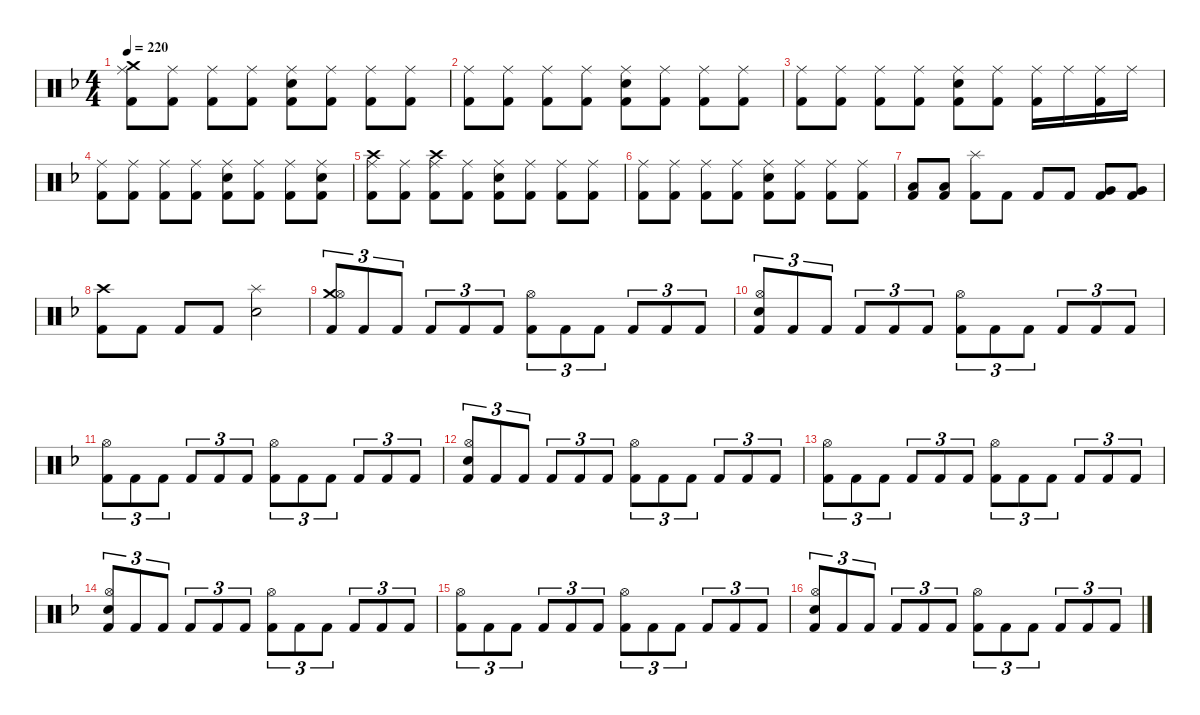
\hideDynamics
\bracketExtendMode nobrackets
\singleTrackTrackNamePolicy hidden
\multiTrackTrackNamePolicy hidden
\firstSystemTrackNameMode fullname
\firstSystemTrackNameOrientation horizontal
\otherSystemsTrackNameOrientation horizontal
\track ("Drumkit" "Drums") {instrument percussion}
\staff {score}
\articulation defaults
\ts (4 4)
\tempo 220
\clef neutral
\ks dminor
("Crash medium (hit)"{acc forcenatural} "Ride (middle)"{acc forcenatural} "Kick (hit) 2"{acc forcenatural}).8{dy f beam Down} ("Ride (middle)"{acc forcenatural} "Kick (hit) 2"{acc forcenatural}).8{dy mp beam Down} ("Ride (middle)"{acc forcenatural} "Kick (hit) 2"{acc forcenatural}).8{dy f beam Down} ("Ride (middle)"{acc forcenatural} "Kick (hit) 2"{acc forcenatural}).8{dy mp beam Down} ("Ride (middle)"{acc forcenatural} "Snare (hit) 2"{acc forcenatural} "Kick (hit) 2"{acc forcenatural}).8{dy f beam Down} ("Ride (middle)"{acc forcenatural} "Kick (hit) 2"{acc forcenatural}).8{dy mp beam Down} ("Ride (middle)"{acc forcenatural} "Kick (hit) 2"{acc forcenatural}).8{dy f beam Down} ("Ride (middle)"{acc forcenatural} "Kick (hit) 2"{acc forcenatural}).8{dy mp beam Down} |
("Ride (middle)"{acc forcenatural} "Kick (hit) 2"{acc forcenatural}).8{dy f beam Down} ("Ride (middle)"{acc forcenatural} "Kick (hit) 2"{acc forcenatural}).8{dy mp beam Down} ("Ride (middle)"{acc forcenatural} "Kick (hit) 2"{acc forcenatural}).8{dy f beam Down} ("Ride (middle)"{acc forcenatural} "Kick (hit) 2"{acc forcenatural}).8{dy mp beam Down} ("Ride (middle)"{acc forcenatural} "Snare (hit) 2"{acc forcenatural} "Kick (hit) 2"{acc forcenatural}).8{dy f beam Down} ("Ride (middle)"{acc forcenatural} "Kick (hit) 2"{acc forcenatural}).8{dy mp beam Down} ("Ride (middle)"{acc forcenatural} "Kick (hit) 2"{acc forcenatural}).8{dy f beam Down} ("Ride (middle)"{acc forcenatural} "Kick (hit) 2"{acc forcenatural}).8{dy mp beam Down} |
("Ride (middle)"{acc forcenatural} "Kick (hit) 2"{acc forcenatural}).8{dy f beam Down} ("Ride (middle)"{acc forcenatural} "Kick (hit) 2"{acc forcenatural}).8{dy mp beam Down} ("Ride (middle)"{acc forcenatural} "Kick (hit) 2"{acc forcenatural}).8{dy f beam Down} ("Ride (middle)"{acc forcenatural} "Kick (hit) 2"{acc forcenatural}).8{dy mp beam Down} ("Ride (middle)"{acc forcenatural} "Snare (hit) 2"{acc forcenatural} "Kick (hit) 2"{acc forcenatural}).8{dy f beam Down} ("Ride (middle)"{acc forcenatural} "Kick (hit) 2"{acc forcenatural}).8{dy mp beam Down} ("Ride (middle)"{acc forcenatural} "Kick (hit) 2"{acc forcenatural}).16{dy f beam Down} "Ride (middle)"{acc forcenatural}.16{dy mf beam Down} ("Ride (middle)"{acc forcenatural} "Kick (hit) 2"{acc forcenatural}).16{dy mp beam Down} "Ride (middle)"{acc forcenatural}.16{dy mf beam Down} |
("Ride (middle)"{acc forcenatural} "Kick (hit) 2"{acc forcenatural}).8{dy f beam Down} ("Ride (middle)"{acc forcenatural} "Kick (hit) 2"{acc forcenatural}).8{dy mp beam Down} ("Ride (middle)"{acc forcenatural} "Kick (hit) 2"{acc forcenatural}).8{dy f beam Down} ("Ride (middle)"{acc forcenatural} "Kick (hit) 2"{acc forcenatural}).8{dy mp beam Down} ("Ride (middle)"{acc forcenatural} "Snare (hit) 2"{acc forcenatural} "Kick (hit) 2"{acc forcenatural}).8{dy f beam Down} ("Ride (middle)"{acc forcenatural} "Kick (hit) 2"{acc forcenatural}).8{dy mp beam Down} ("Ride (middle)"{acc forcenatural} "Kick (hit) 2"{acc forcenatural}).8{dy f beam Down} ("Ride (middle)"{acc forcenatural} "Snare (hit) 2"{acc forcenatural} "Kick (hit) 2"{acc forcenatural}).8{dy mp beam Down} |
("Crash high (hit)"{acc forcenatural} "Ride (middle)"{acc forcenatural} "Kick (hit) 2"{acc forcenatural}).8{dy f beam Down} ("Ride (middle)"{acc forcenatural} "Kick (hit) 2"{acc forcenatural}).8{dy mp beam Down} ("Crash high (hit)"{acc forcenatural} "Ride (middle)"{acc forcenatural} "Kick (hit) 2"{acc forcenatural}).8{dy f beam Down} ("Ride (middle)"{acc forcenatural} "Kick (hit) 2"{acc forcenatural}).8{dy mp beam Down} ("Ride (middle)"{acc forcenatural} "Snare (hit) 2"{acc forcenatural} "Kick (hit) 2"{acc forcenatural}).8{dy f beam Down} ("Ride (middle)"{acc forcenatural} "Kick (hit) 2"{acc forcenatural}).8{dy mp beam Down} ("Ride (middle)"{acc forcenatural} "Kick (hit) 2"{acc forcenatural}).8{dy f beam Down} ("Ride (middle)"{acc forcenatural} "Kick (hit) 2"{acc forcenatural}).8{dy mp beam Down} |
("Ride (middle)"{acc forcenatural} "Kick (hit) 2"{acc forcenatural}).8{dy f beam Down} ("Ride (middle)"{acc forcenatural} "Kick (hit) 2"{acc forcenatural}).8{dy mp beam Down} ("Ride (middle)"{acc forcenatural} "Kick (hit) 2"{acc forcenatural}).8{dy f beam Down} ("Ride (middle)"{acc forcenatural} "Kick (hit) 2"{acc forcenatural}).8{dy mp beam Down} ("Ride (middle)"{acc forcenatural} "Snare (hit) 2"{acc forcenatural} "Kick (hit) 2"{acc forcenatural}).8{dy f beam Down} ("Ride (middle)"{acc forcenatural} "Kick (hit) 2"{acc forcenatural}).8{dy mp beam Down} ("Ride (middle)"{acc forcenatural} "Kick (hit) 2"{acc forcenatural}).8{dy f beam Down} ("Ride (middle)"{acc forcenatural} "Kick (hit) 2"{acc forcenatural}).8{dy mp beam Down} |
("Low Tom (hit)"{acc forcenatural} "Kick (hit) 2"{acc forcenatural}).8{dy f beam Up} ("Low Tom (hit)"{acc forcenatural} "Kick (hit) 2"{acc forcenatural}).8{beam Up} ("Splash (hit)"{acc forcenatural} "Kick (hit) 2"{acc forcenatural}).8{beam Down} "Kick (hit) 2"{acc forcenatural}.8{beam Down} "Kick (hit) 2"{acc forcenatural}.8{beam Up} "Kick (hit) 2"{acc forcenatural}.8{beam Up} ("Very Low Tom (hit)"{acc forcenatural} "Kick (hit) 2"{acc forcenatural}).8{beam Up} ("Very Low Tom (hit)"{acc forcenatural} "Kick (hit) 2"{acc forcenatural}).8{beam Up} |
("Crash high (hit)"{acc forcenatural} "Kick (hit) 2"{acc forcenatural}).8{beam Down} "Kick (hit) 2"{acc forcenatural}.8{beam Down} "Kick (hit) 2"{acc forcenatural}.8{beam Up} "Kick (hit) 2"{acc forcenatural}.8{beam Up} ("Splash (hit)"{acc forcenatural} "Snare (hit) 2"{acc forcenatural}).2{dy mf beam Down} |
("Crash medium (hit)"{acc forcenatural} "Hi-Hat (open)"{acc forcenatural} "Kick (hit) 2"{acc forcenatural}).8{tu (3 2) dy f beam Up} "Kick (hit) 2"{acc forcenatural}.8{tu (3 2) beam Up} "Kick (hit) 2"{acc forcenatural}.8{tu (3 2) beam Up} "Kick (hit) 2"{acc forcenatural}.8{tu (3 2) beam Up} "Kick (hit) 2"{acc forcenatural}.8{tu (3 2) beam Up} "Kick (hit) 2"{acc forcenatural}.8{tu (3 2) beam Up} ("Hi-Hat (open)"{acc forcenatural} "Kick (hit) 2"{acc forcenatural}).8{tu (3 2) beam Down} "Kick (hit) 2"{acc forcenatural}.8{tu (3 2) beam Down} "Kick (hit) 2"{acc forcenatural}.8{tu (3 2) beam Down} "Kick (hit) 2"{acc forcenatural}.8{tu (3 2) beam Up} "Kick (hit) 2"{acc forcenatural}.8{tu (3 2) beam Up} "Kick (hit) 2"{acc forcenatural}.8{tu (3 2) beam Up} |
("Hi-Hat (open)"{acc forcenatural} "Snare (hit) 2"{acc forcenatural} "Kick (hit) 2"{acc forcenatural}).8{tu (3 2) beam Up} "Kick (hit) 2"{acc forcenatural}.8{tu (3 2) beam Up} "Kick (hit) 2"{acc forcenatural}.8{tu (3 2) beam Up} "Kick (hit) 2"{acc forcenatural}.8{tu (3 2) beam Up} "Kick (hit) 2"{acc forcenatural}.8{tu (3 2) beam Up} "Kick (hit) 2"{acc forcenatural}.8{tu (3 2) beam Up} ("Hi-Hat (open)"{acc forcenatural} "Kick (hit) 2"{acc forcenatural}).8{tu (3 2) beam Down} "Kick (hit) 2"{acc forcenatural}.8{tu (3 2) beam Down} "Kick (hit) 2"{acc forcenatural}.8{tu (3 2) beam Down} "Kick (hit) 2"{acc forcenatural}.8{tu (3 2) beam Up} "Kick (hit) 2"{acc forcenatural}.8{tu (3 2) beam Up} "Kick (hit) 2"{acc forcenatural}.8{tu (3 2) beam Up} |
("Hi-Hat (open)"{acc forcenatural} "Kick (hit) 2"{acc forcenatural}).8{tu (3 2) beam Down} "Kick (hit) 2"{acc forcenatural}.8{tu (3 2) beam Down} "Kick (hit) 2"{acc forcenatural}.8{tu (3 2) beam Down} "Kick (hit) 2"{acc forcenatural}.8{tu (3 2) beam Up} "Kick (hit) 2"{acc forcenatural}.8{tu (3 2) beam Up} "Kick (hit) 2"{acc forcenatural}.8{tu (3 2) beam Up} ("Hi-Hat (open)"{acc forcenatural} "Kick (hit) 2"{acc forcenatural}).8{tu (3 2) beam Down} "Kick (hit) 2"{acc forcenatural}.8{tu (3 2) beam Down} "Kick (hit) 2"{acc forcenatural}.8{tu (3 2) beam Down} "Kick (hit) 2"{acc forcenatural}.8{tu (3 2) beam Up} "Kick (hit) 2"{acc forcenatural}.8{tu (3 2) beam Up} "Kick (hit) 2"{acc forcenatural}.8{tu (3 2) beam Up} |
("Hi-Hat (open)"{acc forcenatural} "Snare (hit) 2"{acc forcenatural} "Kick (hit) 2"{acc forcenatural}).8{tu (3 2) beam Up} "Kick (hit) 2"{acc forcenatural}.8{tu (3 2) beam Up} "Kick (hit) 2"{acc forcenatural}.8{tu (3 2) beam Up} "Kick (hit) 2"{acc forcenatural}.8{tu (3 2) beam Up} "Kick (hit) 2"{acc forcenatural}.8{tu (3 2) beam Up} "Kick (hit) 2"{acc forcenatural}.8{tu (3 2) beam Up} ("Hi-Hat (open)"{acc forcenatural} "Kick (hit) 2"{acc forcenatural}).8{tu (3 2) beam Down} "Kick (hit) 2"{acc forcenatural}.8{tu (3 2) beam Down} "Kick (hit) 2"{acc forcenatural}.8{tu (3 2) beam Down} "Kick (hit) 2"{acc forcenatural}.8{tu (3 2) beam Up} "Kick (hit) 2"{acc forcenatural}.8{tu (3 2) beam Up} "Kick (hit) 2"{acc forcenatural}.8{tu (3 2) beam Up} |
("Hi-Hat (open)"{acc forcenatural} "Kick (hit) 2"{acc forcenatural}).8{tu (3 2) beam Down} "Kick (hit) 2"{acc forcenatural}.8{tu (3 2) beam Down} "Kick (hit) 2"{acc forcenatural}.8{tu (3 2) beam Down} "Kick (hit) 2"{acc forcenatural}.8{tu (3 2) beam Up} "Kick (hit) 2"{acc forcenatural}.8{tu (3 2) beam Up} "Kick (hit) 2"{acc forcenatural}.8{tu (3 2) beam Up} ("Hi-Hat (open)"{acc forcenatural} "Kick (hit) 2"{acc forcenatural}).8{tu (3 2) beam Down} "Kick (hit) 2"{acc forcenatural}.8{tu (3 2) beam Down} "Kick (hit) 2"{acc forcenatural}.8{tu (3 2) beam Down} "Kick (hit) 2"{acc forcenatural}.8{tu (3 2) beam Up} "Kick (hit) 2"{acc forcenatural}.8{tu (3 2) beam Up} "Kick (hit) 2"{acc forcenatural}.8{tu (3 2) beam Up} |
("Hi-Hat (open)"{acc forcenatural} "Snare (hit) 2"{acc forcenatural} "Kick (hit) 2"{acc forcenatural}).8{tu (3 2) beam Up} "Kick (hit) 2"{acc forcenatural}.8{tu (3 2) beam Up} "Kick (hit) 2"{acc forcenatural}.8{tu (3 2) beam Up} "Kick (hit) 2"{acc forcenatural}.8{tu (3 2) beam Up} "Kick (hit) 2"{acc forcenatural}.8{tu (3 2) beam Up} "Kick (hit) 2"{acc forcenatural}.8{tu (3 2) beam Up} ("Hi-Hat (open)"{acc forcenatural} "Kick (hit) 2"{acc forcenatural}).8{tu (3 2) beam Down} "Kick (hit) 2"{acc forcenatural}.8{tu (3 2) beam Down} "Kick (hit) 2"{acc forcenatural}.8{tu (3 2) beam Down} "Kick (hit) 2"{acc forcenatural}.8{tu (3 2) beam Up} "Kick (hit) 2"{acc forcenatural}.8{tu (3 2) beam Up} "Kick (hit) 2"{acc forcenatural}.8{tu (3 2) beam Up} |
("Hi-Hat (open)"{acc forcenatural} "Kick (hit) 2"{acc forcenatural}).8{tu (3 2) beam Down} "Kick (hit) 2"{acc forcenatural}.8{tu (3 2) beam Down} "Kick (hit) 2"{acc forcenatural}.8{tu (3 2) beam Down} "Kick (hit) 2"{acc forcenatural}.8{tu (3 2) beam Up} "Kick (hit) 2"{acc forcenatural}.8{tu (3 2) beam Up} "Kick (hit) 2"{acc forcenatural}.8{tu (3 2) beam Up} ("Hi-Hat (open)"{acc forcenatural} "Kick (hit) 2"{acc forcenatural}).8{tu (3 2) beam Down} "Kick (hit) 2"{acc forcenatural}.8{tu (3 2) beam Down} "Kick (hit) 2"{acc forcenatural}.8{tu (3 2) beam Down} "Kick (hit) 2"{acc forcenatural}.8{tu (3 2) beam Up} "Kick (hit) 2"{acc forcenatural}.8{tu (3 2) beam Up} "Kick (hit) 2"{acc forcenatural}.8{tu (3 2) beam Up} |
("Hi-Hat (open)"{acc forcenatural} "Snare (hit) 2"{acc forcenatural} "Kick (hit) 2"{acc forcenatural}).8{tu (3 2) beam Up} "Kick (hit) 2"{acc forcenatural}.8{tu (3 2) beam Up} "Kick (hit) 2"{acc forcenatural}.8{tu (3 2) beam Up} "Kick (hit) 2"{acc forcenatural}.8{tu (3 2) beam Up} "Kick (hit) 2"{acc forcenatural}.8{tu (3 2) beam Up} "Kick (hit) 2"{acc forcenatural}.8{tu (3 2) beam Up} ("Hi-Hat (open)"{acc forcenatural} "Kick (hit) 2"{acc forcenatural}).8{tu (3 2) beam Down} "Kick (hit) 2"{acc forcenatural}.8{tu (3 2) beam Down} "Kick (hit) 2"{acc forcenatural}.8{tu (3 2) beam Down} "Kick (hit) 2"{acc forcenatural}.8{tu (3 2) beam Up} "Kick (hit) 2"{acc forcenatural}.8{tu (3 2) beam Up} "Kick (hit) 2"{acc forcenatural}.8{tu (3 2) beam Up}
